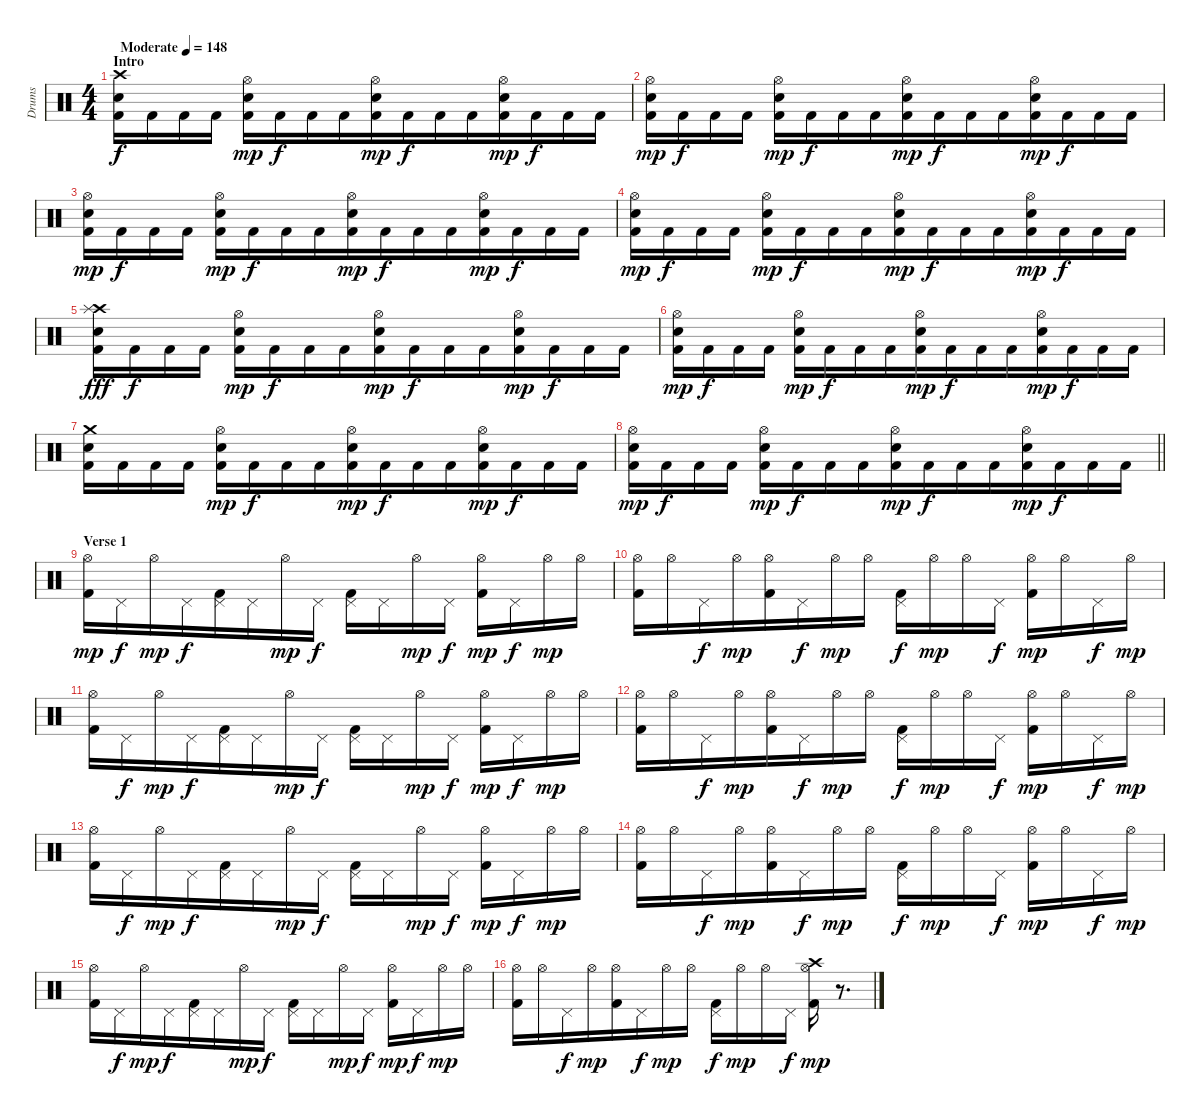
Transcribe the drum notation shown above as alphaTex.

\track ("Drums" "Drums") {instrument percussion}
\staff {score}
\articulation defaults
\ts (4 4)
\section ("" "Intro")
\tempo (148 "Moderate")
\clef neutral
\ks c
("Crash high (hit)" "Snare (hit) 2" "Kick (hit) 2").16{dy f beam merge} "Kick (hit) 2".16 "Kick (hit) 2".16 "Kick (hit) 2".16 ("Hi-Hat (open)" "Snare (hit) 2" "Kick (hit) 2").16{dy mp} "Kick (hit) 2".16{dy f beam merge} "Kick (hit) 2".16{beam merge} "Kick (hit) 2".16{beam merge} ("Hi-Hat (open)" "Snare (hit) 2" "Kick (hit) 2").16{dy mp} "Kick (hit) 2".16{dy f} "Kick (hit) 2".16 "Kick (hit) 2".16{beam merge} ("Hi-Hat (open)" "Snare (hit) 2" "Kick (hit) 2").16{dy mp} "Kick (hit) 2".16{dy f beam merge} "Kick (hit) 2".16 "Kick (hit) 2".16 |
("Hi-Hat (open)" "Snare (hit) 2" "Kick (hit) 2").16{dy mp beam merge} "Kick (hit) 2".16{dy f} "Kick (hit) 2".16 "Kick (hit) 2".16 ("Hi-Hat (open)" "Snare (hit) 2" "Kick (hit) 2").16{dy mp} "Kick (hit) 2".16{dy f beam merge} "Kick (hit) 2".16{beam merge} "Kick (hit) 2".16{beam merge} ("Hi-Hat (open)" "Snare (hit) 2" "Kick (hit) 2").16{dy mp} "Kick (hit) 2".16{dy f} "Kick (hit) 2".16 "Kick (hit) 2".16{beam merge} ("Hi-Hat (open)" "Snare (hit) 2" "Kick (hit) 2").16{dy mp} "Kick (hit) 2".16{dy f beam merge} "Kick (hit) 2".16 "Kick (hit) 2".16 |
("Hi-Hat (open)" "Snare (hit) 2" "Kick (hit) 2").16{dy mp beam merge} "Kick (hit) 2".16{dy f} "Kick (hit) 2".16 "Kick (hit) 2".16 ("Hi-Hat (open)" "Snare (hit) 2" "Kick (hit) 2").16{dy mp} "Kick (hit) 2".16{dy f beam merge} "Kick (hit) 2".16{beam merge} "Kick (hit) 2".16{beam merge} ("Hi-Hat (open)" "Snare (hit) 2" "Kick (hit) 2").16{dy mp} "Kick (hit) 2".16{dy f} "Kick (hit) 2".16 "Kick (hit) 2".16{beam merge} ("Hi-Hat (open)" "Snare (hit) 2" "Kick (hit) 2").16{dy mp} "Kick (hit) 2".16{dy f beam merge} "Kick (hit) 2".16 "Kick (hit) 2".16 |
("Hi-Hat (open)" "Snare (hit) 2" "Kick (hit) 2").16{dy mp beam merge} "Kick (hit) 2".16{dy f} "Kick (hit) 2".16 "Kick (hit) 2".16 ("Hi-Hat (open)" "Snare (hit) 2" "Kick (hit) 2").16{dy mp} "Kick (hit) 2".16{dy f beam merge} "Kick (hit) 2".16{beam merge} "Kick (hit) 2".16{beam merge} ("Hi-Hat (open)" "Snare (hit) 2" "Kick (hit) 2").16{dy mp} "Kick (hit) 2".16{dy f} "Kick (hit) 2".16 "Kick (hit) 2".16{beam merge} ("Hi-Hat (open)" "Snare (hit) 2" "Kick (hit) 2").16{dy mp} "Kick (hit) 2".16{dy f beam merge} "Kick (hit) 2".16 "Kick (hit) 2".16 |
("Crash high (hit)" "Splash (hit)" "Snare (hit) 2" "Kick (hit) 2").16{dy fff beam merge} "Kick (hit) 2".16{dy f} "Kick (hit) 2".16 "Kick (hit) 2".16 ("Hi-Hat (open)" "Snare (hit) 2" "Kick (hit) 2").16{dy mp} "Kick (hit) 2".16{dy f beam merge} "Kick (hit) 2".16{beam merge} "Kick (hit) 2".16{beam merge} ("Hi-Hat (open)" "Snare (hit) 2" "Kick (hit) 2").16{dy mp} "Kick (hit) 2".16{dy f} "Kick (hit) 2".16 "Kick (hit) 2".16{beam merge} ("Hi-Hat (open)" "Snare (hit) 2" "Kick (hit) 2").16{dy mp} "Kick (hit) 2".16{dy f beam merge} "Kick (hit) 2".16 "Kick (hit) 2".16 |
("Hi-Hat (open)" "Snare (hit) 2" "Kick (hit) 2").16{dy mp beam merge} "Kick (hit) 2".16{dy f} "Kick (hit) 2".16 "Kick (hit) 2".16 ("Hi-Hat (open)" "Snare (hit) 2" "Kick (hit) 2").16{dy mp} "Kick (hit) 2".16{dy f beam merge} "Kick (hit) 2".16{beam merge} "Kick (hit) 2".16{beam merge} ("Hi-Hat (open)" "Snare (hit) 2" "Kick (hit) 2").16{dy mp} "Kick (hit) 2".16{dy f} "Kick (hit) 2".16 "Kick (hit) 2".16{beam merge} ("Hi-Hat (open)" "Snare (hit) 2" "Kick (hit) 2").16{dy mp} "Kick (hit) 2".16{dy f beam merge} "Kick (hit) 2".16 "Kick (hit) 2".16 |
("Crash medium (hit)" "Snare (hit) 2" "Kick (hit) 2").16{beam merge} "Kick (hit) 2".16 "Kick (hit) 2".16 "Kick (hit) 2".16 ("Hi-Hat (open)" "Snare (hit) 2" "Kick (hit) 2").16{dy mp} "Kick (hit) 2".16{dy f beam merge} "Kick (hit) 2".16{beam merge} "Kick (hit) 2".16{beam merge} ("Hi-Hat (open)" "Snare (hit) 2" "Kick (hit) 2").16{dy mp} "Kick (hit) 2".16{dy f} "Kick (hit) 2".16 "Kick (hit) 2".16{beam merge} ("Hi-Hat (open)" "Snare (hit) 2" "Kick (hit) 2").16{dy mp} "Kick (hit) 2".16{dy f beam merge} "Kick (hit) 2".16 "Kick (hit) 2".16 |
\barLineRight lightlight
("Hi-Hat (open)" "Snare (hit) 2" "Kick (hit) 2").16{dy mp beam merge} "Kick (hit) 2".16{dy f} "Kick (hit) 2".16 "Kick (hit) 2".16 ("Hi-Hat (open)" "Snare (hit) 2" "Kick (hit) 2").16{dy mp} "Kick (hit) 2".16{dy f beam merge} "Kick (hit) 2".16{beam merge} "Kick (hit) 2".16{beam merge} ("Hi-Hat (open)" "Snare (hit) 2" "Kick (hit) 2").16{dy mp} "Kick (hit) 2".16{dy f} "Kick (hit) 2".16 "Kick (hit) 2".16{beam merge} ("Hi-Hat (open)" "Snare (hit) 2" "Kick (hit) 2").16{dy mp} "Kick (hit) 2".16{dy f beam merge} "Kick (hit) 2".16 "Kick (hit) 2".16 |
\section ("" "Verse 1")
("Hi-Hat (open)" "Kick (hit) 2").16{dy mp} "Pedal Hi-Hat (hit)".16{dy f} "Hi-Hat (open)".16{dy mp beam merge} "Pedal Hi-Hat (hit)".16{dy f beam merge} ("Pedal Hi-Hat (hit)" "Kick (hit) 2").16{beam merge} "Pedal Hi-Hat (hit)".16 "Hi-Hat (open)".16{dy mp beam merge} "Pedal Hi-Hat (hit)".16{dy f} ("Pedal Hi-Hat (hit)" "Kick (hit) 2").16 "Pedal Hi-Hat (hit)".16 "Hi-Hat (open)".16{dy mp beam merge} "Pedal Hi-Hat (hit)".16{dy f} ("Hi-Hat (open)" "Kick (hit) 2").16{dy mp} "Pedal Hi-Hat (hit)".16{dy f} "Hi-Hat (open)".16{dy mp} "Hi-Hat (open)".16 |
("Hi-Hat (open)" "Kick (hit) 2").16 "Hi-Hat (open)".16 "Pedal Hi-Hat (hit)".16{dy f beam merge} "Hi-Hat (open)".16{dy mp beam merge} ("Hi-Hat (open)" "Kick (hit) 2").16{beam merge} "Pedal Hi-Hat (hit)".16{dy f} "Hi-Hat (open)".16{dy mp beam merge} "Hi-Hat (open)".16 ("Pedal Hi-Hat (hit)" "Kick (hit) 2").16{dy f} "Hi-Hat (open)".16{dy mp} "Hi-Hat (open)".16{beam merge} "Pedal Hi-Hat (hit)".16{dy f} ("Hi-Hat (open)" "Kick (hit) 2").16{dy mp} "Hi-Hat (open)".16 "Pedal Hi-Hat (hit)".16{dy f} "Hi-Hat (open)".16{dy mp} |
("Hi-Hat (open)" "Kick (hit) 2").16 "Pedal Hi-Hat (hit)".16{dy f} "Hi-Hat (open)".16{dy mp beam merge} "Pedal Hi-Hat (hit)".16{dy f beam merge} ("Pedal Hi-Hat (hit)" "Kick (hit) 2").16{beam merge} "Pedal Hi-Hat (hit)".16 "Hi-Hat (open)".16{dy mp beam merge} "Pedal Hi-Hat (hit)".16{dy f} ("Pedal Hi-Hat (hit)" "Kick (hit) 2").16 "Pedal Hi-Hat (hit)".16 "Hi-Hat (open)".16{dy mp beam merge} "Pedal Hi-Hat (hit)".16{dy f} ("Hi-Hat (open)" "Kick (hit) 2").16{dy mp} "Pedal Hi-Hat (hit)".16{dy f} "Hi-Hat (open)".16{dy mp} "Hi-Hat (open)".16 |
("Hi-Hat (open)" "Kick (hit) 2").16 "Hi-Hat (open)".16 "Pedal Hi-Hat (hit)".16{dy f beam merge} "Hi-Hat (open)".16{dy mp beam merge} ("Hi-Hat (open)" "Kick (hit) 2").16{beam merge} "Pedal Hi-Hat (hit)".16{dy f} "Hi-Hat (open)".16{dy mp beam merge} "Hi-Hat (open)".16 ("Pedal Hi-Hat (hit)" "Kick (hit) 2").16{dy f} "Hi-Hat (open)".16{dy mp} "Hi-Hat (open)".16{beam merge} "Pedal Hi-Hat (hit)".16{dy f} ("Hi-Hat (open)" "Kick (hit) 2").16{dy mp} "Hi-Hat (open)".16 "Pedal Hi-Hat (hit)".16{dy f} "Hi-Hat (open)".16{dy mp} |
("Hi-Hat (open)" "Kick (hit) 2").16 "Pedal Hi-Hat (hit)".16{dy f} "Hi-Hat (open)".16{dy mp beam merge} "Pedal Hi-Hat (hit)".16{dy f beam merge} ("Pedal Hi-Hat (hit)" "Kick (hit) 2").16{beam merge} "Pedal Hi-Hat (hit)".16 "Hi-Hat (open)".16{dy mp beam merge} "Pedal Hi-Hat (hit)".16{dy f} ("Pedal Hi-Hat (hit)" "Kick (hit) 2").16 "Pedal Hi-Hat (hit)".16 "Hi-Hat (open)".16{dy mp beam merge} "Pedal Hi-Hat (hit)".16{dy f} ("Hi-Hat (open)" "Kick (hit) 2").16{dy mp} "Pedal Hi-Hat (hit)".16{dy f} "Hi-Hat (open)".16{dy mp} "Hi-Hat (open)".16 |
("Hi-Hat (open)" "Kick (hit) 2").16 "Hi-Hat (open)".16 "Pedal Hi-Hat (hit)".16{dy f beam merge} "Hi-Hat (open)".16{dy mp beam merge} ("Hi-Hat (open)" "Kick (hit) 2").16{beam merge} "Pedal Hi-Hat (hit)".16{dy f} "Hi-Hat (open)".16{dy mp beam merge} "Hi-Hat (open)".16 ("Pedal Hi-Hat (hit)" "Kick (hit) 2").16{dy f} "Hi-Hat (open)".16{dy mp} "Hi-Hat (open)".16{beam merge} "Pedal Hi-Hat (hit)".16{dy f} ("Hi-Hat (open)" "Kick (hit) 2").16{dy mp} "Hi-Hat (open)".16 "Pedal Hi-Hat (hit)".16{dy f} "Hi-Hat (open)".16{dy mp} |
("Hi-Hat (open)" "Kick (hit) 2").16 "Pedal Hi-Hat (hit)".16{dy f} "Hi-Hat (open)".16{dy mp beam merge} "Pedal Hi-Hat (hit)".16{dy f beam merge} ("Pedal Hi-Hat (hit)" "Kick (hit) 2").16{beam merge} "Pedal Hi-Hat (hit)".16 "Hi-Hat (open)".16{dy mp beam merge} "Pedal Hi-Hat (hit)".16{dy f} ("Pedal Hi-Hat (hit)" "Kick (hit) 2").16 "Pedal Hi-Hat (hit)".16 "Hi-Hat (open)".16{dy mp beam merge} "Pedal Hi-Hat (hit)".16{dy f} ("Hi-Hat (open)" "Kick (hit) 2").16{dy mp} "Pedal Hi-Hat (hit)".16{dy f} "Hi-Hat (open)".16{dy mp} "Hi-Hat (open)".16 |
("Hi-Hat (open)" "Kick (hit) 2").16 "Hi-Hat (open)".16 "Pedal Hi-Hat (hit)".16{dy f beam merge} "Hi-Hat (open)".16{dy mp beam merge} ("Hi-Hat (open)" "Kick (hit) 2").16{beam merge} "Pedal Hi-Hat (hit)".16{dy f} "Hi-Hat (open)".16{dy mp beam merge} "Hi-Hat (open)".16 ("Pedal Hi-Hat (hit)" "Kick (hit) 2").16{dy f} "Hi-Hat (open)".16{dy mp} "Hi-Hat (open)".16{beam merge} "Pedal Hi-Hat (hit)".16{dy f} ("Crash high (hit)" "Hi-Hat (open)" "Kick (hit) 2").16{dy mp beam merge} r.8{d}
